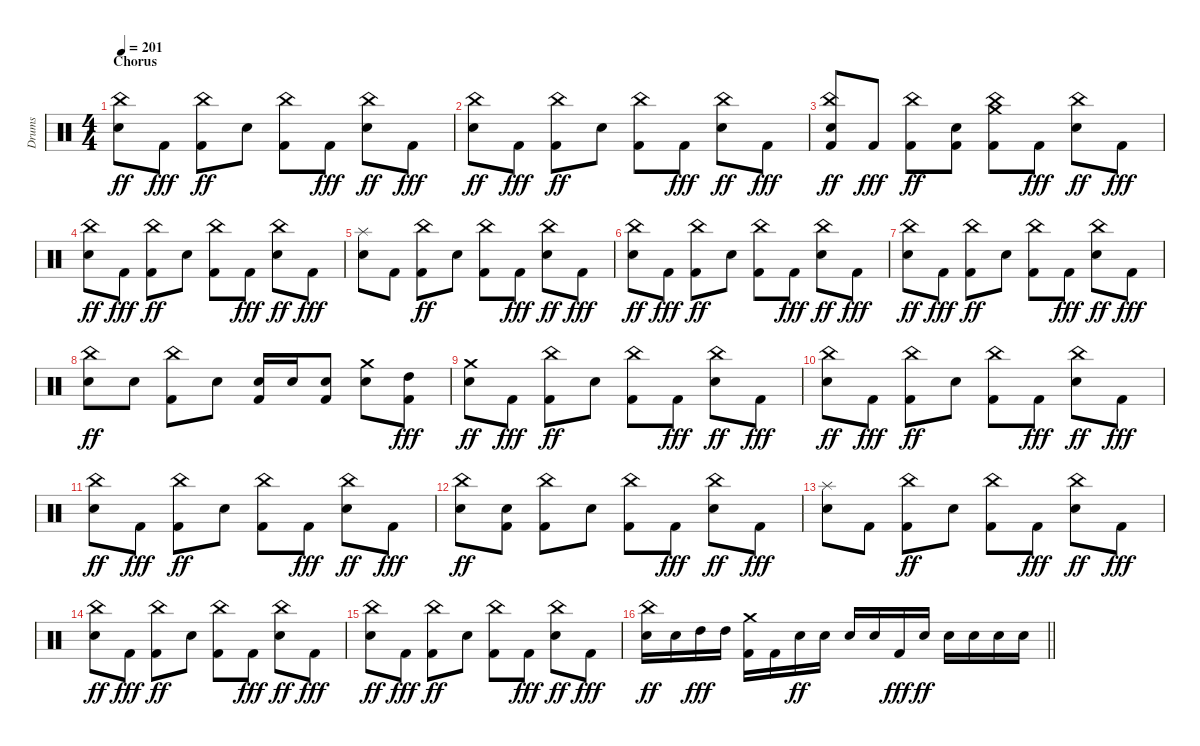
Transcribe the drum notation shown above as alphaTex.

\track ("Drums" "Drums") {instrument percussion}
\staff {score}
\articulation defaults
\ts (4 4)
\section ("" "Chorus")
\tempo 201
\clef neutral
\ks c
("Snare (hit) 2" "China (hit)").8{dy ff} "Kick (hit) 2".8{dy fff} ("Kick (hit) 2" "China (hit)").8{dy ff} "Snare (hit) 2".8 ("Kick (hit) 2" "China (hit)").8 "Kick (hit) 2".8{dy fff} ("Snare (hit) 2" "China (hit)").8{dy ff} "Kick (hit) 2".8{dy fff} |
("Snare (hit) 2" "China (hit)").8{dy ff} "Kick (hit) 2".8{dy fff} ("Kick (hit) 2" "China (hit)").8{dy ff} "Snare (hit) 2".8 ("Kick (hit) 2" "China (hit)").8 "Kick (hit) 2".8{dy fff} ("Snare (hit) 2" "China (hit)").8{dy ff} "Kick (hit) 2".8{dy fff} |
("Kick (hit) 2" "Snare (hit) 2" "China (hit)").8{dy ff} "Kick (hit) 2".8{dy fff} ("Kick (hit) 2" "China (hit)").8{dy ff} ("Kick (hit) 2" "Snare (hit) 2").8 ("Kick (hit) 2" "China (hit)" "Crash medium (hit)").8 "Kick (hit) 2".8{dy fff} ("Snare (hit) 2" "China (hit)").8{dy ff} "Kick (hit) 2".8{dy fff} |
("Snare (hit) 2" "China (hit)").8{dy ff} "Kick (hit) 2".8{dy fff} ("Kick (hit) 2" "China (hit)").8{dy ff} "Snare (hit) 2".8 ("Kick (hit) 2" "China (hit)").8 "Kick (hit) 2".8{dy fff} ("Snare (hit) 2" "China (hit)").8{dy ff} "Kick (hit) 2".8{dy fff} |
("Snare (hit) 2" "Splash (hit)").8 "Kick (hit) 2".8 ("Kick (hit) 2" "China (hit)").8{dy ff} "Snare (hit) 2".8 ("Kick (hit) 2" "China (hit)").8 "Kick (hit) 2".8{dy fff} ("Snare (hit) 2" "China (hit)").8{dy ff} "Kick (hit) 2".8{dy fff} |
("Snare (hit) 2" "China (hit)").8{dy ff} "Kick (hit) 2".8{dy fff} ("Kick (hit) 2" "China (hit)").8{dy ff} "Snare (hit) 2".8 ("Kick (hit) 2" "China (hit)").8 "Kick (hit) 2".8{dy fff} ("Snare (hit) 2" "China (hit)").8{dy ff} "Kick (hit) 2".8{dy fff} |
("Snare (hit) 2" "China (hit)").8{dy ff} "Kick (hit) 2".8{dy fff} ("Kick (hit) 2" "China (hit)").8{dy ff} "Snare (hit) 2".8 ("Kick (hit) 2" "China (hit)").8 "Kick (hit) 2".8{dy fff} ("Snare (hit) 2" "China (hit)").8{dy ff} "Kick (hit) 2".8{dy fff} |
("Snare (hit) 2" "China (hit)").8{dy ff} "Snare (hit) 2".8 ("Kick (hit) 2" "China (hit)").8 "Snare (hit) 2".8 ("Kick (hit) 2" "Snare (hit) 2").16 "Snare (hit) 2".16 ("Kick (hit) 2" "Snare (hit) 2").8 ("Snare (hit) 2" "Crash medium (hit)").8 ("Kick (hit) 2" "High Tom (hit)").8{dy fff} |
("Snare (hit) 2" "Crash medium (hit)").8{dy ff} "Kick (hit) 2".8{dy fff} ("Kick (hit) 2" "China (hit)").8{dy ff} "Snare (hit) 2".8 ("Kick (hit) 2" "China (hit)").8 "Kick (hit) 2".8{dy fff} ("Snare (hit) 2" "China (hit)").8{dy ff} "Kick (hit) 2".8{dy fff} |
("Snare (hit) 2" "China (hit)").8{dy ff} "Kick (hit) 2".8{dy fff} ("Kick (hit) 2" "China (hit)").8{dy ff} "Snare (hit) 2".8 ("Kick (hit) 2" "China (hit)").8 "Kick (hit) 2".8{dy fff} ("Snare (hit) 2" "China (hit)").8{dy ff} "Kick (hit) 2".8{dy fff} |
("Snare (hit) 2" "China (hit)").8{dy ff} "Kick (hit) 2".8{dy fff} ("Kick (hit) 2" "China (hit)").8{dy ff} "Snare (hit) 2".8 ("Kick (hit) 2" "China (hit)").8 "Kick (hit) 2".8{dy fff} ("Snare (hit) 2" "China (hit)").8{dy ff} "Kick (hit) 2".8{dy fff} |
("Snare (hit) 2" "China (hit)").8{dy ff} ("Kick (hit) 2" "Snare (hit) 2").8 ("Kick (hit) 2" "China (hit)").8 "Snare (hit) 2".8 ("Kick (hit) 2" "China (hit)").8 "Kick (hit) 2".8{dy fff} ("Snare (hit) 2" "China (hit)").8{dy ff} "Kick (hit) 2".8{dy fff} |
("Snare (hit) 2" "Splash (hit)").8 "Kick (hit) 2".8 ("Kick (hit) 2" "China (hit)").8{dy ff} "Snare (hit) 2".8 ("Kick (hit) 2" "China (hit)").8 "Kick (hit) 2".8{dy fff} ("Snare (hit) 2" "China (hit)").8{dy ff} "Kick (hit) 2".8{dy fff} |
("Snare (hit) 2" "China (hit)").8{dy ff} "Kick (hit) 2".8{dy fff} ("Kick (hit) 2" "China (hit)").8{dy ff} "Snare (hit) 2".8 ("Kick (hit) 2" "China (hit)").8 "Kick (hit) 2".8{dy fff} ("Snare (hit) 2" "China (hit)").8{dy ff} "Kick (hit) 2".8{dy fff} |
("Snare (hit) 2" "China (hit)").8{dy ff} "Kick (hit) 2".8{dy fff} ("Kick (hit) 2" "China (hit)").8{dy ff} "Snare (hit) 2".8 ("Kick (hit) 2" "China (hit)").8 "Kick (hit) 2".8{dy fff} ("Snare (hit) 2" "China (hit)").8{dy ff} "Kick (hit) 2".8{dy fff} |
\barLineRight lightlight
("Snare (hit) 2" "China (hit)").16{dy ff} "Snare (hit) 2".16 "High Tom (hit)".16{dy fff} "High Tom (hit)".16 ("Kick (hit) 2" "Crash medium (hit)").16 "Kick (hit) 2".16 "Snare (hit) 2".16{dy ff} "Snare (hit) 2".16 "Snare (hit) 2".16 "Snare (hit) 2".16 "Kick (hit) 2".16{dy fff} "Snare (hit) 2".16{dy ff} "Snare (hit) 2".16 "Snare (hit) 2".16 "Snare (hit) 2".16 "Snare (hit) 2".16
